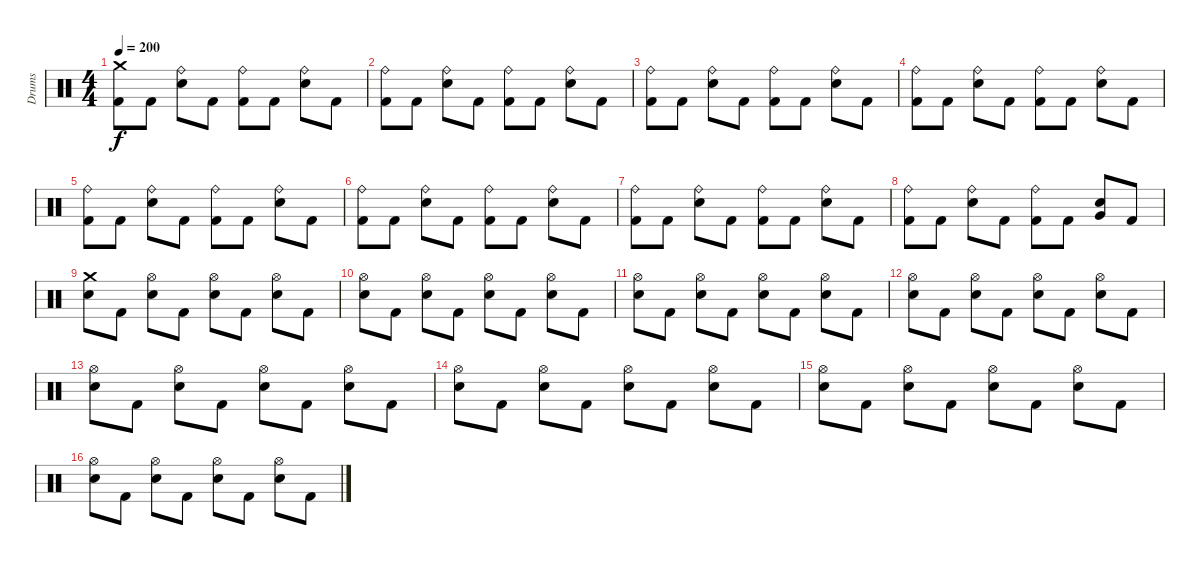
\track ("Drums" "Drums") {instrument percussion}
\staff {score}
\articulation defaults
\ts (4 4)
\tempo 200
\clef neutral
\ks c
("Crash medium (hit)" "Kick (hit) 2").8{dy f} "Kick (hit) 2".8 ("Ride (bell)" "Electric Snare (hit)").8 "Kick (hit) 2".8 ("Ride (bell)" "Kick (hit) 2").8 "Kick (hit) 2".8 ("Ride (bell)" "Electric Snare (hit)").8 "Kick (hit) 2".8 |
("Ride (bell)" "Kick (hit) 2").8 "Kick (hit) 2".8 ("Ride (bell)" "Electric Snare (hit)").8 "Kick (hit) 2".8 ("Ride (bell)" "Kick (hit) 2").8 "Kick (hit) 2".8 ("Ride (bell)" "Electric Snare (hit)").8 "Kick (hit) 2".8 |
("Ride (bell)" "Kick (hit) 2").8 "Kick (hit) 2".8 ("Ride (bell)" "Electric Snare (hit)").8 "Kick (hit) 2".8 ("Ride (bell)" "Kick (hit) 2").8 "Kick (hit) 2".8 ("Ride (bell)" "Electric Snare (hit)").8 "Kick (hit) 2".8 |
("Ride (bell)" "Kick (hit) 2").8 "Kick (hit) 2".8 ("Ride (bell)" "Electric Snare (hit)").8 "Kick (hit) 2".8 ("Ride (bell)" "Kick (hit) 2").8 "Kick (hit) 2".8 ("Ride (bell)" "Electric Snare (hit)").8 "Kick (hit) 2".8 |
("Ride (bell)" "Kick (hit) 2").8 "Kick (hit) 2".8 ("Ride (bell)" "Electric Snare (hit)").8 "Kick (hit) 2".8 ("Ride (bell)" "Kick (hit) 2").8 "Kick (hit) 2".8 ("Ride (bell)" "Electric Snare (hit)").8 "Kick (hit) 2".8 |
("Ride (bell)" "Kick (hit) 2").8 "Kick (hit) 2".8 ("Ride (bell)" "Electric Snare (hit)").8 "Kick (hit) 2".8 ("Ride (bell)" "Kick (hit) 2").8 "Kick (hit) 2".8 ("Ride (bell)" "Electric Snare (hit)").8 "Kick (hit) 2".8 |
("Ride (bell)" "Kick (hit) 2").8 "Kick (hit) 2".8 ("Ride (bell)" "Electric Snare (hit)").8 "Kick (hit) 2".8 ("Ride (bell)" "Kick (hit) 2").8 "Kick (hit) 2".8 ("Ride (bell)" "Electric Snare (hit)").8 "Kick (hit) 2".8 |
("Ride (bell)" "Kick (hit) 2").8 "Kick (hit) 2".8 ("Ride (bell)" "Electric Snare (hit)").8 "Kick (hit) 2".8 ("Ride (bell)" "Kick (hit) 2").8 "Kick (hit) 2".8 ("Very Low Tom (hit)" "Electric Snare (hit)").8 "Kick (hit) 2".8 |
("Crash medium (hit)" "Electric Snare (hit)").8 "Kick (hit) 2".8 ("Hi-Hat (open)" "Electric Snare (hit)").8 "Kick (hit) 2".8 ("Hi-Hat (open)" "Electric Snare (hit)").8 "Kick (hit) 2".8 ("Hi-Hat (open)" "Electric Snare (hit)").8 "Kick (hit) 2".8 |
("Hi-Hat (open)" "Electric Snare (hit)").8 "Kick (hit) 2".8 ("Hi-Hat (open)" "Electric Snare (hit)").8 "Kick (hit) 2".8 ("Hi-Hat (open)" "Electric Snare (hit)").8 "Kick (hit) 2".8 ("Hi-Hat (open)" "Electric Snare (hit)").8 "Kick (hit) 2".8 |
("Hi-Hat (open)" "Electric Snare (hit)").8 "Kick (hit) 2".8 ("Hi-Hat (open)" "Electric Snare (hit)").8 "Kick (hit) 2".8 ("Hi-Hat (open)" "Electric Snare (hit)").8 "Kick (hit) 2".8 ("Hi-Hat (open)" "Electric Snare (hit)").8 "Kick (hit) 2".8 |
("Hi-Hat (open)" "Electric Snare (hit)").8 "Kick (hit) 2".8 ("Hi-Hat (open)" "Electric Snare (hit)").8 "Kick (hit) 2".8 ("Hi-Hat (open)" "Electric Snare (hit)").8 "Kick (hit) 2".8 ("Hi-Hat (open)" "Electric Snare (hit)").8 "Kick (hit) 2".8 |
("Hi-Hat (open)" "Electric Snare (hit)").8 "Kick (hit) 2".8 ("Hi-Hat (open)" "Electric Snare (hit)").8 "Kick (hit) 2".8 ("Hi-Hat (open)" "Electric Snare (hit)").8 "Kick (hit) 2".8 ("Hi-Hat (open)" "Electric Snare (hit)").8 "Kick (hit) 2".8 |
("Hi-Hat (open)" "Electric Snare (hit)").8 "Kick (hit) 2".8 ("Hi-Hat (open)" "Electric Snare (hit)").8 "Kick (hit) 2".8 ("Hi-Hat (open)" "Electric Snare (hit)").8 "Kick (hit) 2".8 ("Hi-Hat (open)" "Electric Snare (hit)").8 "Kick (hit) 2".8 |
("Hi-Hat (open)" "Electric Snare (hit)").8 "Kick (hit) 2".8 ("Hi-Hat (open)" "Electric Snare (hit)").8 "Kick (hit) 2".8 ("Hi-Hat (open)" "Electric Snare (hit)").8 "Kick (hit) 2".8 ("Hi-Hat (open)" "Electric Snare (hit)").8 "Kick (hit) 2".8 |
("Hi-Hat (open)" "Electric Snare (hit)").8 "Kick (hit) 2".8 ("Hi-Hat (open)" "Electric Snare (hit)").8 "Kick (hit) 2".8 ("Hi-Hat (open)" "Electric Snare (hit)").8 "Kick (hit) 2".8 ("Hi-Hat (open)" "Electric Snare (hit)").8 "Kick (hit) 2".8
